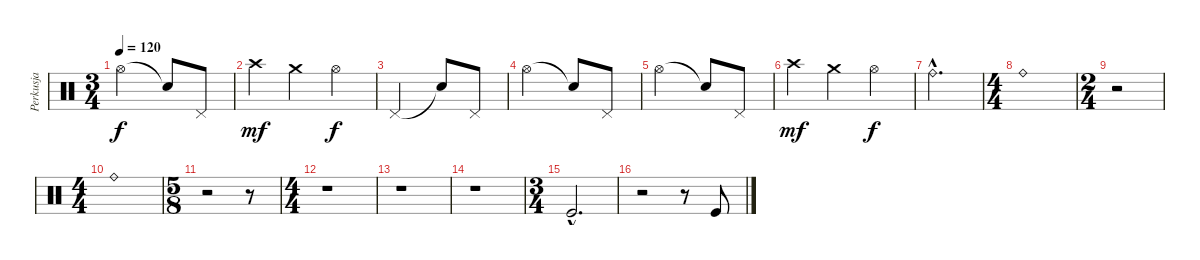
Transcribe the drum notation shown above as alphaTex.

\track ("Perkusja" "Perkusja") {instrument percussion}
\staff {score}
\articulation defaults
\ts (3 4)
\tempo 120
\clef neutral
\ks c "Hi-Hat (open)".2{dy f} "Snare (hit)"{t}.8 "Pedal Hi-Hat (hit)".8
|
"Crash high (hit)".4{dy mf} "Crash medium (hit)".4 "Hi-Hat (open)".4{dy f} |
"Pedal Hi-Hat (hit)".2 "Snare (hit)"{t}.8 "Pedal Hi-Hat (hit)".8 |
"Hi-Hat (open)".2 "Snare (hit)"{t}.8 "Pedal Hi-Hat (hit)".8 |
"Hi-Hat (open)".2 "Snare (hit)"{t}.8 "Pedal Hi-Hat (hit)".8 |
"Crash high (hit)".4{dy mf} "Crash medium (hit)".4 "Hi-Hat (open)".4{dy f} |
"Ride (bell)"{hac}.2{d} |
\ts (4 4)
"Ride (bell)".1 |
\ts (2 4)
r.2 |
\ts (4 4)
"Ride (bell)".1 |
\ts (5 8)
r.2 r.8 |
\ts (4 4)
r.1 |
r.1 |
r.1 |
\ts (3 4)
"Kick (hit)"{hac}.2{d} |
r.2 r.8 "Kick (hit)".8
